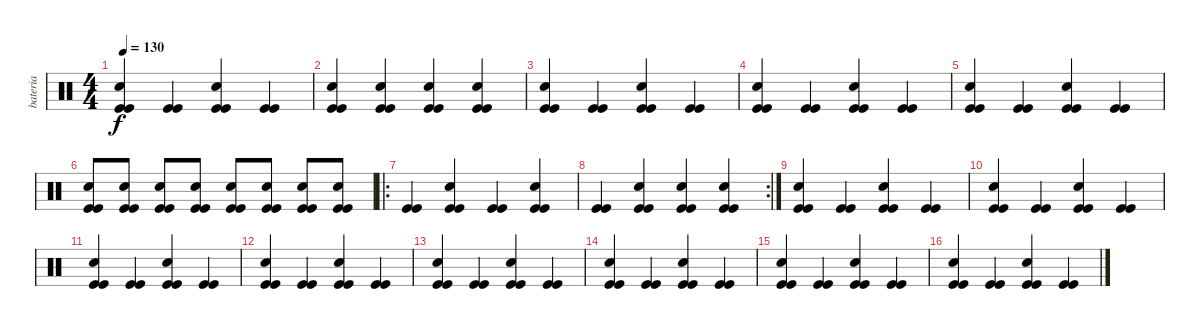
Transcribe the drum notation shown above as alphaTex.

\track ("bateria" "bateria") {instrument percussion}
\staff {score}
\articulation defaults
\ts (4 4)
\tempo 130
\clef neutral
\ks c
("Kick (hit)" "Snare (hit) 2" "Kick (hit)").4{dy f} ("Kick (hit)" "Kick (hit)").4 ("Kick (hit)" "Snare (hit) 2" "Kick (hit)").4 ("Kick (hit)" "Kick (hit)").4 |
("Kick (hit)" "Snare (hit) 2" "Kick (hit)").4 ("Kick (hit)" "Snare (hit) 2" "Kick (hit)").4 ("Kick (hit)" "Snare (hit) 2" "Kick (hit)").4 ("Kick (hit)" "Snare (hit) 2" "Kick (hit)").4 |
("Kick (hit)" "Snare (hit) 2" "Kick (hit)").4 ("Kick (hit)" "Kick (hit)").4 ("Kick (hit)" "Snare (hit) 2" "Kick (hit)").4 ("Kick (hit)" "Kick (hit)").4 |
("Kick (hit)" "Snare (hit) 2" "Kick (hit)").4 ("Kick (hit)" "Kick (hit)").4 ("Kick (hit)" "Snare (hit) 2" "Kick (hit)").4 ("Kick (hit)" "Kick (hit)").4 |
("Kick (hit)" "Snare (hit) 2" "Kick (hit)").4 ("Kick (hit)" "Kick (hit)").4 ("Kick (hit)" "Snare (hit) 2" "Kick (hit)").4 ("Kick (hit)" "Kick (hit)").4 |
("Kick (hit)" "Snare (hit) 2" "Kick (hit)").8 ("Kick (hit)" "Snare (hit) 2" "Kick (hit)").8 ("Kick (hit)" "Snare (hit) 2" "Kick (hit)").8 ("Kick (hit)" "Snare (hit) 2" "Kick (hit)").8 ("Kick (hit)" "Snare (hit) 2" "Kick (hit)").8 ("Kick (hit)" "Snare (hit) 2" "Kick (hit)").8 ("Kick (hit)" "Snare (hit) 2" "Kick (hit)").8 ("Kick (hit)" "Snare (hit) 2" "Kick (hit)").8 |
\ro
("Kick (hit)" "Kick (hit)").4 ("Kick (hit)" "Snare (hit) 2" "Kick (hit)").4 ("Kick (hit)" "Kick (hit)").4 ("Kick (hit)" "Snare (hit) 2" "Kick (hit)").4 |
\rc 2
("Kick (hit)" "Kick (hit)").4 ("Kick (hit)" "Snare (hit) 2" "Kick (hit)").4 ("Kick (hit)" "Snare (hit) 2" "Kick (hit)").4 ("Kick (hit)" "Snare (hit) 2" "Kick (hit)").4 |
("Kick (hit)" "Snare (hit) 2" "Kick (hit)").4 ("Kick (hit)" "Kick (hit)").4 ("Kick (hit)" "Snare (hit) 2" "Kick (hit)").4 ("Kick (hit)" "Kick (hit)").4 |
("Kick (hit)" "Snare (hit) 2" "Kick (hit)").4 ("Kick (hit)" "Kick (hit)").4 ("Kick (hit)" "Snare (hit) 2" "Kick (hit)").4 ("Kick (hit)" "Kick (hit)").4 |
("Kick (hit)" "Snare (hit) 2" "Kick (hit)").4 ("Kick (hit)" "Kick (hit)").4 ("Kick (hit)" "Snare (hit) 2" "Kick (hit)").4 ("Kick (hit)" "Kick (hit)").4 |
("Kick (hit)" "Snare (hit) 2" "Kick (hit)").4 ("Kick (hit)" "Kick (hit)").4 ("Kick (hit)" "Snare (hit) 2" "Kick (hit)").4 ("Kick (hit)" "Kick (hit)").4 |
("Kick (hit)" "Snare (hit) 2" "Kick (hit)").4 ("Kick (hit)" "Kick (hit)").4 ("Kick (hit)" "Snare (hit) 2" "Kick (hit)").4 ("Kick (hit)" "Kick (hit)").4 |
("Kick (hit)" "Snare (hit) 2" "Kick (hit)").4 ("Kick (hit)" "Kick (hit)").4 ("Kick (hit)" "Snare (hit) 2" "Kick (hit)").4 ("Kick (hit)" "Kick (hit)").4 |
("Kick (hit)" "Snare (hit) 2" "Kick (hit)").4 ("Kick (hit)" "Kick (hit)").4 ("Kick (hit)" "Snare (hit) 2" "Kick (hit)").4 ("Kick (hit)" "Kick (hit)").4 |
("Kick (hit)" "Snare (hit) 2" "Kick (hit)").4 ("Kick (hit)" "Kick (hit)").4 ("Kick (hit)" "Snare (hit) 2" "Kick (hit)").4 ("Kick (hit)" "Kick (hit)").4
